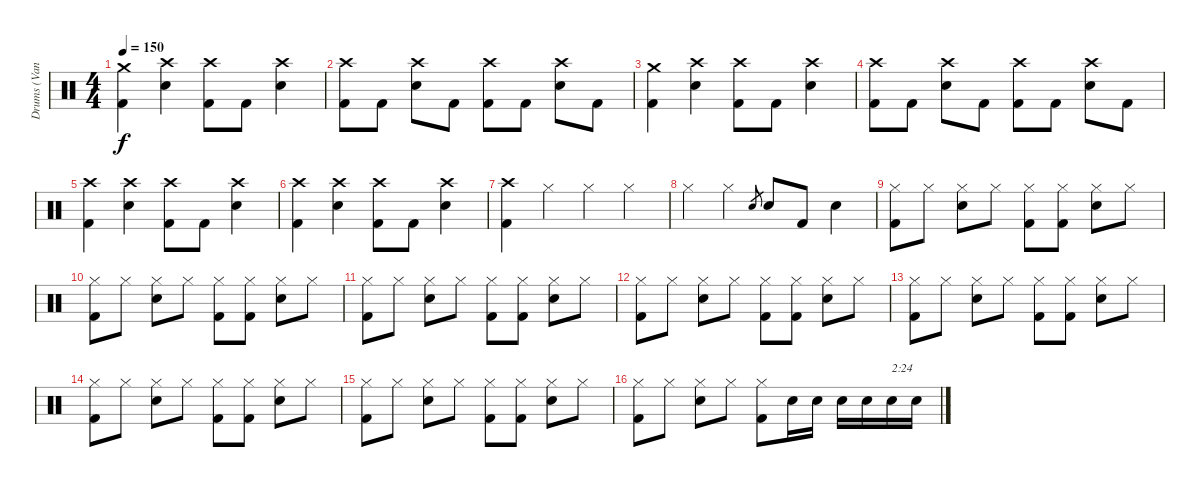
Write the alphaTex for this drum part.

\track ("Drums (Vandel)" "Drums (Van") {instrument percussion}
\staff {score}
\articulation defaults
\ts (4 4)
\tempo 150
\clef neutral
\ks c
("Crash medium (hit)" "Kick (hit) 2").4{dy f} ("Crash high (hit)" "Snare (hit) 2").4 ("Crash high (hit)" "Kick (hit) 2").8 "Kick (hit) 2".8 ("Crash high (hit)" "Snare (hit) 2").4 |
("Crash high (hit)" "Kick (hit) 2").8 "Kick (hit) 2".8 ("Crash high (hit)" "Snare (hit) 2").8 "Kick (hit) 2".8 ("Crash high (hit)" "Kick (hit) 2").8 "Kick (hit) 2".8 ("Crash high (hit)" "Snare (hit) 2").8 "Kick (hit) 2".8 |
("Crash medium (hit)" "Kick (hit) 2").4 ("Crash high (hit)" "Snare (hit) 2").4 ("Crash high (hit)" "Kick (hit) 2").8 "Kick (hit) 2".8 ("Crash high (hit)" "Snare (hit) 2").4 |
("Crash high (hit)" "Kick (hit) 2").8 "Kick (hit) 2".8 ("Crash high (hit)" "Snare (hit) 2").8 "Kick (hit) 2".8 ("Crash high (hit)" "Kick (hit) 2").8 "Kick (hit) 2".8 ("Crash high (hit)" "Snare (hit) 2").8 "Kick (hit) 2".8 |
("Crash high (hit)" "Kick (hit) 2").4 ("Crash high (hit)" "Snare (hit) 2").4 ("Crash high (hit)" "Kick (hit) 2").8 "Kick (hit) 2".8 ("Crash high (hit)" "Snare (hit) 2").4 |
("Crash high (hit)" "Kick (hit) 2").4 ("Crash high (hit)" "Snare (hit) 2").4 ("Crash high (hit)" "Kick (hit) 2").8 "Kick (hit) 2".8 ("Crash high (hit)" "Snare (hit) 2").4 |
("Crash high (hit)" "Kick (hit) 2").4 "Hi-Hat (closed)".4 "Hi-Hat (closed)".4 "Hi-Hat (closed)".4 |
"Hi-Hat (closed)".4 "Hi-Hat (closed)".4 "Snare (hit) 2".8{gr} "Snare (hit) 2".8 "Kick (hit) 2".8 "Snare (hit) 2".4 |
("Hi-Hat (closed)" "Kick (hit) 2").8 "Hi-Hat (closed)".8 ("Hi-Hat (closed)" "Snare (hit) 2").8 "Hi-Hat (closed)".8 ("Hi-Hat (closed)" "Kick (hit) 2").8 ("Hi-Hat (closed)" "Kick (hit) 2").8 ("Hi-Hat (closed)" "Snare (hit) 2").8 "Hi-Hat (closed)".8 |
("Hi-Hat (closed)" "Kick (hit) 2").8 "Hi-Hat (closed)".8 ("Hi-Hat (closed)" "Snare (hit) 2").8 "Hi-Hat (closed)".8 ("Hi-Hat (closed)" "Kick (hit) 2").8 ("Hi-Hat (closed)" "Kick (hit) 2").8 ("Hi-Hat (closed)" "Snare (hit) 2").8 "Hi-Hat (closed)".8 |
("Hi-Hat (closed)" "Kick (hit) 2").8 "Hi-Hat (closed)".8 ("Hi-Hat (closed)" "Snare (hit) 2").8 "Hi-Hat (closed)".8 ("Hi-Hat (closed)" "Kick (hit) 2").8 ("Hi-Hat (closed)" "Kick (hit) 2").8 ("Hi-Hat (closed)" "Snare (hit) 2").8 "Hi-Hat (closed)".8 |
("Hi-Hat (closed)" "Kick (hit) 2").8 "Hi-Hat (closed)".8 ("Hi-Hat (closed)" "Snare (hit) 2").8 "Hi-Hat (closed)".8 ("Hi-Hat (closed)" "Kick (hit) 2").8 ("Hi-Hat (closed)" "Kick (hit) 2").8 ("Hi-Hat (closed)" "Snare (hit) 2").8 "Hi-Hat (closed)".8 |
("Hi-Hat (closed)" "Kick (hit) 2").8 "Hi-Hat (closed)".8 ("Hi-Hat (closed)" "Snare (hit) 2").8 "Hi-Hat (closed)".8 ("Hi-Hat (closed)" "Kick (hit) 2").8 ("Hi-Hat (closed)" "Kick (hit) 2").8 ("Hi-Hat (closed)" "Snare (hit) 2").8 "Hi-Hat (closed)".8 |
("Hi-Hat (closed)" "Kick (hit) 2").8 "Hi-Hat (closed)".8 ("Hi-Hat (closed)" "Snare (hit) 2").8 "Hi-Hat (closed)".8 ("Hi-Hat (closed)" "Kick (hit) 2").8 ("Hi-Hat (closed)" "Kick (hit) 2").8 ("Hi-Hat (closed)" "Snare (hit) 2").8 "Hi-Hat (closed)".8 |
("Hi-Hat (closed)" "Kick (hit) 2").8 "Hi-Hat (closed)".8 ("Hi-Hat (closed)" "Snare (hit) 2").8 "Hi-Hat (closed)".8 ("Hi-Hat (closed)" "Kick (hit) 2").8 ("Hi-Hat (closed)" "Kick (hit) 2").8 ("Hi-Hat (closed)" "Snare (hit) 2").8 "Hi-Hat (closed)".8 |
("Hi-Hat (closed)" "Kick (hit) 2").8 "Hi-Hat (closed)".8 ("Hi-Hat (closed)" "Snare (hit) 2").8 "Hi-Hat (closed)".8 ("Hi-Hat (closed)" "Kick (hit) 2").8 "Snare (hit) 2".16 "Snare (hit) 2".16 "Snare (hit) 2".16 "Snare (hit) 2".16 "Snare (hit) 2".16{txt "2:24"} "Snare (hit) 2".16
